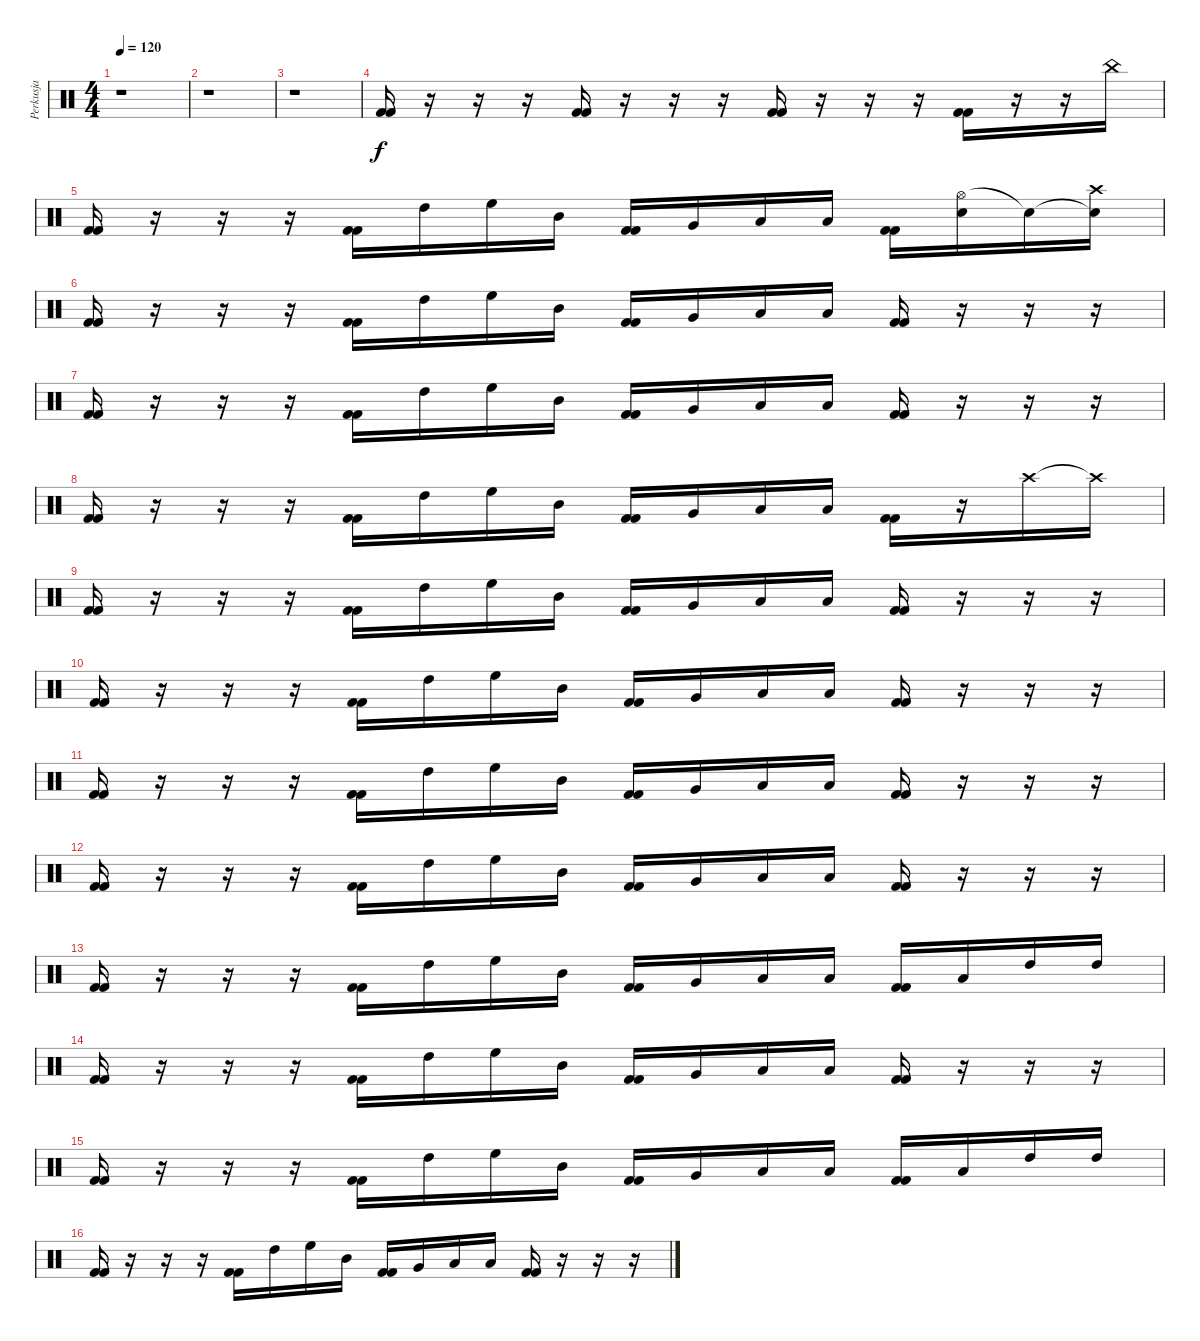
\track ("Perkusja" "Perkusja") {instrument percussion}
\staff {score}
\articulation defaults
\ts (4 4)
\tempo 120
\clef neutral
\ks c
r.1{dy ff} |
r.1 |
r.1 |
("Kick (hit) 2" "Kick (hit) 2").16{dy f} r.16 r.16 r.16 ("Kick (hit) 2" "Kick (hit) 2").16 r.16 r.16 r.16 ("Kick (hit) 2" "Kick (hit) 2").16 r.16 r.16 r.16 ("Kick (hit) 2" "Kick (hit) 2").16 r.16 r.16 "China (hit)".16 |
("Kick (hit) 2" "Kick (hit) 2").16 r.16 r.16 r.16 ("Kick (hit) 2" "Kick (hit) 2").16 "High Tom (hit)".16 "High Floor Tom (hit)".16 "Mid Tom (hit)".16 ("Kick (hit) 2" "Kick (hit) 2").16 "Very Low Tom (hit)".16 "Low Tom (hit)".16 "Low Floor Tom (hit)".16 ("Kick (hit) 2" "Kick (hit) 2").16 ("Hi-Hat (open)" "Electric Snare (hit)").16 "Snare (hit)"{t}.16 ("Snare (hit)"{t} "Crash high (hit)").16 |
("Kick (hit) 2" "Kick (hit) 2").16 r.16 r.16 r.16 ("Kick (hit) 2" "Kick (hit) 2").16 "High Tom (hit)".16 "High Floor Tom (hit)".16 "Mid Tom (hit)".16 ("Kick (hit) 2" "Kick (hit) 2").16 "Very Low Tom (hit)".16 "Low Tom (hit)".16 "Low Floor Tom (hit)".16 ("Kick (hit) 2" "Kick (hit) 2").16 r.16 r.16 r.16 |
("Kick (hit) 2" "Kick (hit) 2").16 r.16 r.16 r.16 ("Kick (hit) 2" "Kick (hit) 2").16 "High Tom (hit)".16 "High Floor Tom (hit)".16 "Mid Tom (hit)".16 ("Kick (hit) 2" "Kick (hit) 2").16 "Very Low Tom (hit)".16 "Low Tom (hit)".16 "Low Floor Tom (hit)".16 ("Kick (hit) 2" "Kick (hit) 2").16 r.16 r.16 r.16 |
("Kick (hit) 2" "Kick (hit) 2").16 r.16 r.16 r.16 ("Kick (hit) 2" "Kick (hit) 2").16 "High Tom (hit)".16 "High Floor Tom (hit)".16 "Mid Tom (hit)".16 ("Kick (hit) 2" "Kick (hit) 2").16 "Very Low Tom (hit)".16 "Low Tom (hit)".16 "Low Floor Tom (hit)".16 ("Kick (hit) 2" "Kick (hit) 2").16 r.16 "Crash high (hit)".16 "Crash high (hit)"{t}.16 |
("Kick (hit) 2" "Kick (hit) 2").16 r.16 r.16 r.16 ("Kick (hit) 2" "Kick (hit) 2").16 "High Tom (hit)".16 "High Floor Tom (hit)".16 "Mid Tom (hit)".16 ("Kick (hit) 2" "Kick (hit) 2").16 "Very Low Tom (hit)".16 "Low Tom (hit)".16 "Low Floor Tom (hit)".16 ("Kick (hit) 2" "Kick (hit) 2").16 r.16 r.16 r.16 |
("Kick (hit) 2" "Kick (hit) 2").16 r.16 r.16 r.16 ("Kick (hit) 2" "Kick (hit) 2").16 "High Tom (hit)".16 "High Floor Tom (hit)".16 "Mid Tom (hit)".16 ("Kick (hit) 2" "Kick (hit) 2").16 "Very Low Tom (hit)".16 "Low Tom (hit)".16 "Low Floor Tom (hit)".16 ("Kick (hit) 2" "Kick (hit) 2").16 r.16 r.16 r.16 |
("Kick (hit) 2" "Kick (hit) 2").16 r.16 r.16 r.16 ("Kick (hit) 2" "Kick (hit) 2").16 "High Tom (hit)".16 "High Floor Tom (hit)".16 "Mid Tom (hit)".16 ("Kick (hit) 2" "Kick (hit) 2").16 "Very Low Tom (hit)".16 "Low Tom (hit)".16 "Low Floor Tom (hit)".16 ("Kick (hit) 2" "Kick (hit) 2").16 r.16 r.16 r.16 |
("Kick (hit) 2" "Kick (hit) 2").16 r.16 r.16 r.16 ("Kick (hit) 2" "Kick (hit) 2").16 "High Tom (hit)".16 "High Floor Tom (hit)".16 "Mid Tom (hit)".16 ("Kick (hit) 2" "Kick (hit) 2").16 "Very Low Tom (hit)".16 "Low Tom (hit)".16 "Low Floor Tom (hit)".16 ("Kick (hit) 2" "Kick (hit) 2").16 r.16 r.16 r.16 |
("Kick (hit) 2" "Kick (hit) 2").16 r.16 r.16 r.16 ("Kick (hit) 2" "Kick (hit) 2").16 "High Tom (hit)".16 "High Floor Tom (hit)".16 "Mid Tom (hit)".16 ("Kick (hit) 2" "Kick (hit) 2").16 "Very Low Tom (hit)".16 "Low Tom (hit)".16 "Low Floor Tom (hit)".16 ("Kick (hit) 2" "Kick (hit) 2").16 "Low Floor Tom (hit)".16 "High Tom (hit)".16 "High Tom (hit)".16 |
("Kick (hit) 2" "Kick (hit) 2").16 r.16 r.16 r.16 ("Kick (hit) 2" "Kick (hit) 2").16 "High Tom (hit)".16 "High Floor Tom (hit)".16 "Mid Tom (hit)".16 ("Kick (hit) 2" "Kick (hit) 2").16 "Very Low Tom (hit)".16 "Low Tom (hit)".16 "Low Floor Tom (hit)".16 ("Kick (hit) 2" "Kick (hit) 2").16 r.16 r.16 r.16 |
("Kick (hit) 2" "Kick (hit) 2").16 r.16 r.16 r.16 ("Kick (hit) 2" "Kick (hit) 2").16 "High Tom (hit)".16 "High Floor Tom (hit)".16 "Mid Tom (hit)".16 ("Kick (hit) 2" "Kick (hit) 2").16 "Very Low Tom (hit)".16 "Low Tom (hit)".16 "Low Floor Tom (hit)".16 ("Kick (hit) 2" "Kick (hit) 2").16 "Low Floor Tom (hit)".16 "High Tom (hit)".16 "High Tom (hit)".16 |
("Kick (hit) 2" "Kick (hit) 2").16 r.16 r.16 r.16 ("Kick (hit) 2" "Kick (hit) 2").16 "High Tom (hit)".16 "High Floor Tom (hit)".16 "Mid Tom (hit)".16 ("Kick (hit) 2" "Kick (hit) 2").16 "Very Low Tom (hit)".16 "Low Tom (hit)".16 "Low Floor Tom (hit)".16 ("Kick (hit) 2" "Kick (hit) 2").16 r.16 r.16 r.16
